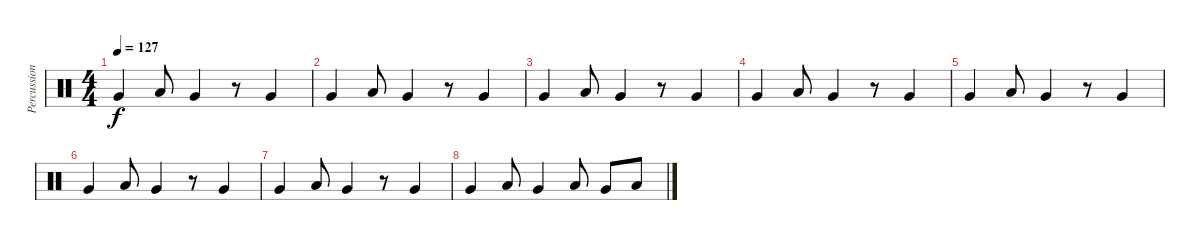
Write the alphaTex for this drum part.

\track ("Percussion" "Percussion") {instrument percussion}
\staff {score}
\articulation defaults
\ts (4 4)
\tempo 127
\clef neutral
\ks c "Very Low Tom (hit)".4{dy f volume 7} "Low Floor Tom (hit)".8 "Very Low Tom (hit)".4
r.8 "Very Low Tom (hit)".4 |
"Very Low Tom (hit)".4 "Low Floor Tom (hit)".8 "Very Low Tom (hit)".4 r.8 "Very Low Tom (hit)".4 |
"Very Low Tom (hit)".4 "Low Floor Tom (hit)".8 "Very Low Tom (hit)".4 r.8 "Very Low Tom (hit)".4 |
"Very Low Tom (hit)".4 "Low Floor Tom (hit)".8 "Very Low Tom (hit)".4 r.8 "Very Low Tom (hit)".4 |
"Very Low Tom (hit)".4{volume 0} "Low Floor Tom (hit)".8 "Very Low Tom (hit)".4 r.8 "Very Low Tom (hit)".4 |
"Very Low Tom (hit)".4 "Low Floor Tom (hit)".8 "Very Low Tom (hit)".4 r.8 "Very Low Tom (hit)".4 |
"Very Low Tom (hit)".4 "Low Floor Tom (hit)".8 "Very Low Tom (hit)".4 r.8 "Very Low Tom (hit)".4 |
"Very Low Tom (hit)".4 "Low Floor Tom (hit)".8 "Very Low Tom (hit)".4 "Low Floor Tom (hit)".8 "Very Low Tom (hit)".8 "Low Floor Tom (hit)".8
